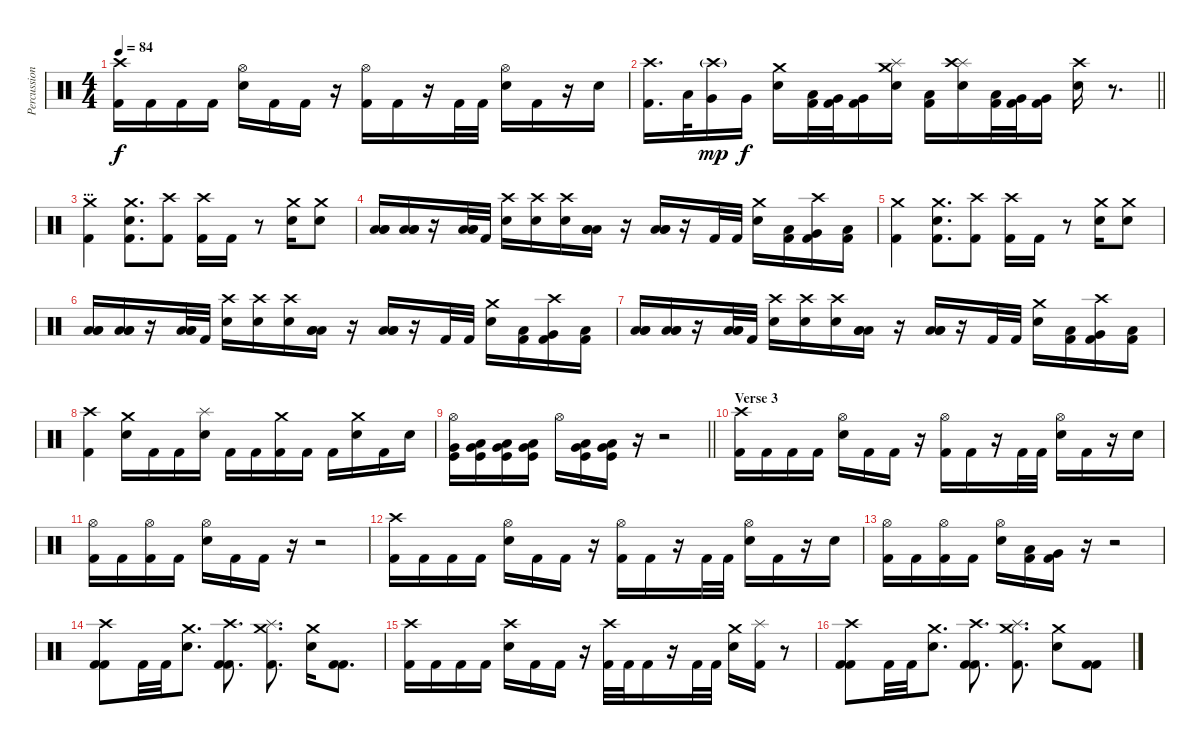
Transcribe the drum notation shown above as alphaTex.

\track ("Percussion" "Percussion") {instrument percussion}
\staff {score}
\articulation defaults
\ts (4 4)
\tempo 84
\clef neutral
\ks c
("Crash high (hit)" "Kick (hit) 2").16{dy f} "Kick (hit) 2".16 "Kick (hit) 2".16 "Kick (hit) 2".16 ("Hi-Hat (open)" "Electric Snare (hit)").16 "Kick (hit) 2".16 "Kick (hit) 2".16 r.16 ("Hi-Hat (open)" "Kick (hit) 2").16 "Kick (hit) 2".16 r.16 "Kick (hit) 2".32 "Kick (hit) 2".32 ("Hi-Hat (open)" "Electric Snare (hit)").16 "Kick (hit) 2".16 r.16 "Electric Snare (hit)".16 |
\barLineRight lightlight
("Crash high (hit)" "Kick (hit) 2").16{d} "Low Tom (hit)".32 ("Crash high (hit)"{g} "Very Low Tom (hit)").16{dy mp} "Very Low Tom (hit)".16{dy f} ("Crash medium (hit)" "Electric Snare (hit)").16 ("Low Tom (hit)" "Kick (hit) 2").32 ("Very Low Tom (hit)" "Kick (hit) 2").32 ("Very Low Tom (hit)" "Kick (hit) 2").16 ("Splash (hit)" "Crash medium (hit)" "Electric Snare (hit)").16 ("Low Tom (hit)" "Kick (hit) 2").16 ("Splash (hit)" "Crash high (hit)" "Electric Snare (hit)").16 ("Low Tom (hit)" "Kick (hit) 2").32 ("Very Low Tom (hit)" "Kick (hit) 2").32 ("Very Low Tom (hit)" "Kick (hit) 2").16 ("Crash high (hit)" "Electric Snare (hit)").16 r.8{d} |
\section ("" "...")
("Crash medium (hit)" "Kick (hit) 2").4 ("Crash medium (hit)" "Electric Snare (hit)" "Kick (hit) 2").8{d} ("Crash high (hit)" "Kick (hit) 2").8 ("Crash high (hit)" "Kick (hit) 2").16 "Kick (hit) 2".16 r.8 ("Crash medium (hit)" "Electric Snare (hit)").16 ("Crash medium (hit)" "Electric Snare (hit)").8 |
("Low Tom (hit)" "Low Floor Tom (hit)" "Low Floor Tom (hit)").16 ("Low Tom (hit)" "Low Floor Tom (hit)" "Low Floor Tom (hit)").16 r.16 ("Low Tom (hit)" "Low Floor Tom (hit)" "Low Floor Tom (hit)").32 "Kick (hit) 2".32 ("Crash high (hit)" "Electric Snare (hit)").16 ("Crash high (hit)" "Electric Snare (hit)").16 ("Crash high (hit)" "Electric Snare (hit)").16 ("Low Tom (hit)" "Low Floor Tom (hit)" "Low Floor Tom (hit)").16 r.16 ("Low Tom (hit)" "Low Floor Tom (hit)" "Low Floor Tom (hit)").16 r.16 "Kick (hit) 2".32 "Kick (hit) 2".32 ("Crash medium (hit)" "Electric Snare (hit)").16 ("Low Tom (hit)" "Kick (hit) 2").16 ("Crash high (hit)" "Very Low Tom (hit)" "Kick (hit) 2").16 ("Low Floor Tom (hit)" "Kick (hit) 2").16 |
("Crash medium (hit)" "Kick (hit) 2").4 ("Crash medium (hit)" "Electric Snare (hit)" "Kick (hit) 2").8{d} ("Crash high (hit)" "Kick (hit) 2").8 ("Crash high (hit)" "Kick (hit) 2").16 "Kick (hit) 2".16 r.8 ("Crash medium (hit)" "Electric Snare (hit)").16 ("Crash medium (hit)" "Electric Snare (hit)").8 |
("Low Tom (hit)" "Low Floor Tom (hit)" "Low Floor Tom (hit)").16 ("Low Tom (hit)" "Low Floor Tom (hit)" "Low Floor Tom (hit)").16 r.16 ("Low Tom (hit)" "Low Floor Tom (hit)" "Low Floor Tom (hit)").32 "Kick (hit) 2".32 ("Crash high (hit)" "Electric Snare (hit)").16 ("Crash high (hit)" "Electric Snare (hit)").16 ("Crash high (hit)" "Electric Snare (hit)").16 ("Low Tom (hit)" "Low Floor Tom (hit)" "Low Floor Tom (hit)").16 r.16 ("Low Tom (hit)" "Low Floor Tom (hit)" "Low Floor Tom (hit)").16 r.16 "Kick (hit) 2".32 "Kick (hit) 2".32 ("Crash medium (hit)" "Electric Snare (hit)").16 ("Low Tom (hit)" "Kick (hit) 2").16 ("Crash high (hit)" "Very Low Tom (hit)" "Kick (hit) 2").16 ("Low Floor Tom (hit)" "Kick (hit) 2").16 |
("Low Tom (hit)" "Low Floor Tom (hit)" "Low Floor Tom (hit)").16 ("Low Tom (hit)" "Low Floor Tom (hit)" "Low Floor Tom (hit)").16 r.16 ("Low Tom (hit)" "Low Floor Tom (hit)" "Low Floor Tom (hit)").32 "Kick (hit) 2".32 ("Crash high (hit)" "Electric Snare (hit)").16 ("Crash high (hit)" "Electric Snare (hit)").16 ("Crash high (hit)" "Electric Snare (hit)").16 ("Low Tom (hit)" "Low Floor Tom (hit)" "Low Floor Tom (hit)").16 r.16 ("Low Tom (hit)" "Low Floor Tom (hit)" "Low Floor Tom (hit)").16 r.16 "Kick (hit) 2".32 "Kick (hit) 2".32 ("Crash medium (hit)" "Electric Snare (hit)").16 ("Low Tom (hit)" "Kick (hit) 2").16 ("Crash high (hit)" "Very Low Tom (hit)" "Kick (hit) 2").16 ("Low Floor Tom (hit)" "Kick (hit) 2").16 |
("Crash high (hit)" "Kick (hit) 2").4 ("Crash medium (hit)" "Electric Snare (hit)").16 "Kick (hit) 2".16 "Kick (hit) 2".16 ("Splash (hit)" "Electric Snare (hit)").16 "Kick (hit) 2".16 "Kick (hit) 2".16 ("Crash medium (hit)" "Kick (hit) 2").16 "Kick (hit) 2".16 "Kick (hit) 2".16 ("Crash medium (hit)" "Electric Snare (hit)").16 "Kick (hit) 2".16 "Electric Snare (hit)".16 |
\barLineRight lightlight
("Hi-Hat (open)" "Very Low Tom (hit)" "Kick (hit)").16 ("Low Tom (hit)" "Very Low Tom (hit)" "Kick (hit)").16 ("Low Tom (hit)" "Very Low Tom (hit)" "Kick (hit)").16 ("Low Tom (hit)" "Very Low Tom (hit)" "Kick (hit)").16 "Hi-Hat (open)".16 ("Low Tom (hit)" "Very Low Tom (hit)" "Kick (hit)").16 ("Low Tom (hit)" "Very Low Tom (hit)" "Kick (hit)").16 r.16 r.2 |
\section ("" "Verse 3")
("Crash high (hit)" "Kick (hit) 2").16 "Kick (hit) 2".16 "Kick (hit) 2".16 "Kick (hit) 2".16 ("Hi-Hat (open)" "Electric Snare (hit)").16 "Kick (hit) 2".16 "Kick (hit) 2".16 r.16 ("Hi-Hat (open)" "Kick (hit) 2").16 "Kick (hit) 2".16 r.16 "Kick (hit) 2".32 "Kick (hit) 2".32 ("Hi-Hat (open)" "Electric Snare (hit)").16 "Kick (hit) 2".16 r.16 "Electric Snare (hit)".16 |
("Hi-Hat (open)" "Kick (hit) 2").16 "Kick (hit) 2".16 ("Hi-Hat (open)" "Kick (hit) 2").16 "Kick (hit) 2".16 ("Hi-Hat (open)" "Electric Snare (hit)").16 "Kick (hit) 2".16 "Kick (hit) 2".16 r.16 r.2 |
("Crash high (hit)" "Kick (hit) 2").16 "Kick (hit) 2".16 "Kick (hit) 2".16 "Kick (hit) 2".16 ("Hi-Hat (open)" "Electric Snare (hit)").16 "Kick (hit) 2".16 "Kick (hit) 2".16 r.16 ("Hi-Hat (open)" "Kick (hit) 2").16 "Kick (hit) 2".16 r.16 "Kick (hit) 2".32 "Kick (hit) 2".32 ("Hi-Hat (open)" "Electric Snare (hit)").16 "Kick (hit) 2".16 r.16 "Electric Snare (hit)".16 |
("Hi-Hat (open)" "Kick (hit) 2").16 "Kick (hit) 2".16 ("Hi-Hat (open)" "Kick (hit) 2").16 "Kick (hit) 2".16 ("Hi-Hat (open)" "Electric Snare (hit)").16 ("Low Tom (hit)" "Kick (hit) 2").16 ("Very Low Tom (hit)" "Kick (hit) 2").16 r.16 r.2 |
("Crash high (hit)" "Kick (hit) 2" "Kick (hit) 2").8 "Kick (hit) 2".32 "Kick (hit) 2".32 ("Crash medium (hit)" "Electric Snare (hit)").8{d} ("Crash high (hit)" "Kick (hit) 2" "Kick (hit) 2").8{d} ("Splash (hit)" "Crash medium (hit)" "Kick (hit) 2").8{d} ("Crash medium (hit)" "Electric Snare (hit)").16 ("Kick (hit) 2" "Kick (hit) 2").8{d} |
("Crash high (hit)" "Kick (hit) 2").16 "Kick (hit) 2".16 "Kick (hit) 2".16 "Kick (hit) 2".16 ("Crash high (hit)" "Electric Snare (hit)").16 "Kick (hit) 2".16 "Kick (hit) 2".16 r.16 ("Crash high (hit)" "Kick (hit) 2").32 "Kick (hit) 2".32 "Kick (hit) 2".16 r.16 "Kick (hit) 2".32 "Kick (hit) 2".32 ("Crash medium (hit)" "Electric Snare (hit)").16 ("Splash (hit)" "Kick (hit) 2").16 r.8 |
("Crash high (hit)" "Kick (hit) 2" "Kick (hit) 2").8 "Kick (hit) 2".32 "Kick (hit) 2".32 ("Crash medium (hit)" "Electric Snare (hit)").8{d} ("Crash high (hit)" "Kick (hit) 2" "Kick (hit) 2").8{d} ("Splash (hit)" "Crash medium (hit)" "Kick (hit) 2").8{d} ("Crash medium (hit)" "Electric Snare (hit)").8 ("Kick (hit) 2" "Kick (hit) 2").8
